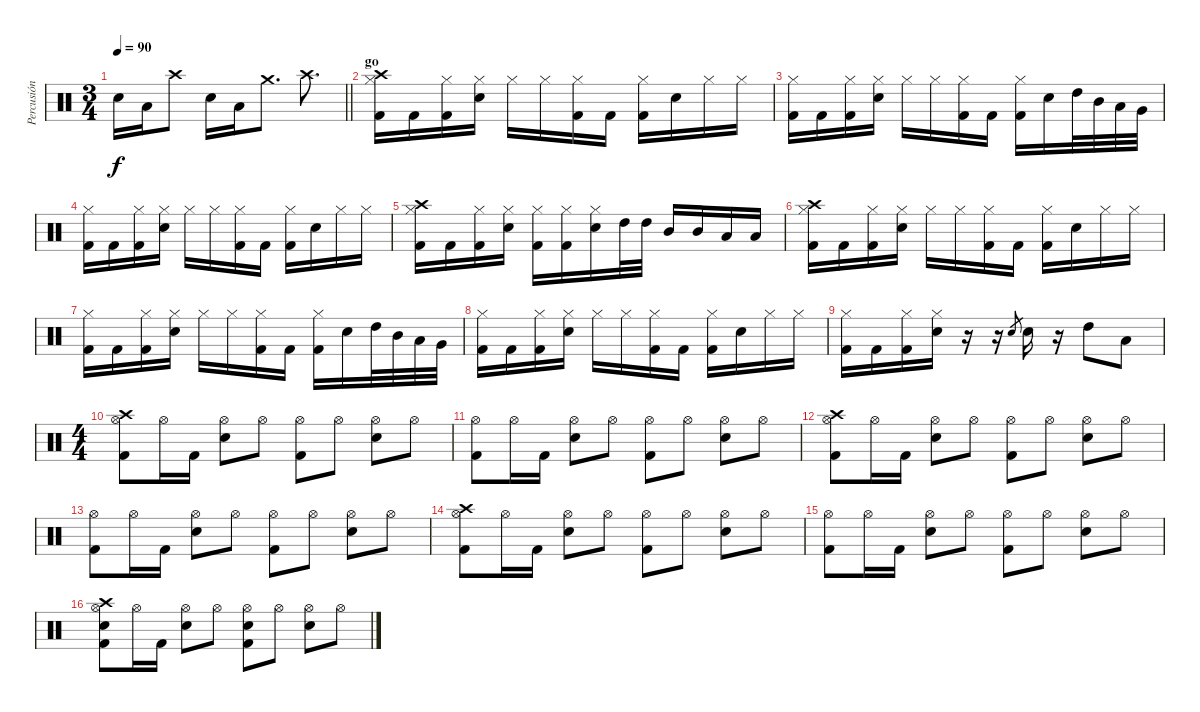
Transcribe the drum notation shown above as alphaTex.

\track ("Percusión" "Percusión") {instrument percussion}
\staff {score}
\articulation defaults
\ts (3 4)
\tempo 90
\clef neutral
\barLineRight lightlight
\ks c "Electric Snare (hit)".16{dy f} "Low Tom (hit)".16 "Crash high (hit)".8 "Electric Snare (hit)".16 "Low Tom (hit)".16 "Crash medium (hit)".8{d} "Crash high (hit)".8{d}
|
\section ("" "go")
("Crash high (hit)" "Hi-Hat (closed)" "Kick (hit) 2").16 "Kick (hit) 2".16 ("Hi-Hat (closed)" "Kick (hit) 2").16 ("Hi-Hat (closed)" "Electric Snare (hit)").16 "Hi-Hat (closed)".16 "Hi-Hat (closed)".16 ("Hi-Hat (closed)" "Kick (hit) 2").16 "Kick (hit) 2".16 ("Hi-Hat (closed)" "Kick (hit) 2").16 "Electric Snare (hit)".16 "Hi-Hat (closed)".16 "Hi-Hat (closed)".16 |
("Hi-Hat (closed)" "Kick (hit) 2").16 "Kick (hit) 2".16 ("Hi-Hat (closed)" "Kick (hit) 2").16 ("Hi-Hat (closed)" "Electric Snare (hit)").16 "Hi-Hat (closed)".16 "Hi-Hat (closed)".16 ("Hi-Hat (closed)" "Kick (hit) 2").16 "Kick (hit) 2".16 ("Hi-Hat (closed)" "Kick (hit) 2").16 "Electric Snare (hit)".16 "High Tom (hit)".32 "Mid Tom (hit)".32 "Low Tom (hit)".32 "Very Low Tom (hit)".32 |
("Hi-Hat (closed)" "Kick (hit) 2").16 "Kick (hit) 2".16 ("Hi-Hat (closed)" "Kick (hit) 2").16 ("Hi-Hat (closed)" "Electric Snare (hit)").16 "Hi-Hat (closed)".16 "Hi-Hat (closed)".16 ("Hi-Hat (closed)" "Kick (hit) 2").16 "Kick (hit) 2".16 ("Hi-Hat (closed)" "Kick (hit) 2").16 "Electric Snare (hit)".16 "Hi-Hat (closed)".16 "Hi-Hat (closed)".16 |
("Crash high (hit)" "Hi-Hat (closed)" "Kick (hit) 2").16 "Kick (hit) 2".16 ("Hi-Hat (closed)" "Kick (hit) 2").16 ("Hi-Hat (closed)" "Electric Snare (hit)").16 ("Hi-Hat (closed)" "Kick (hit) 2").16 ("Hi-Hat (closed)" "Kick (hit) 2").16 ("Hi-Hat (closed)" "Electric Snare (hit)").16 "High Tom (hit)".32 "High Tom (hit)".32 "Mid Tom (hit)".16 "Mid Tom (hit)".16 "Low Tom (hit)".16 "Low Tom (hit)".16 |
("Crash high (hit)" "Hi-Hat (closed)" "Kick (hit) 2").16 "Kick (hit) 2".16 ("Hi-Hat (closed)" "Kick (hit) 2").16 ("Hi-Hat (closed)" "Electric Snare (hit)").16 "Hi-Hat (closed)".16 "Hi-Hat (closed)".16 ("Hi-Hat (closed)" "Kick (hit) 2").16 "Kick (hit) 2".16 ("Hi-Hat (closed)" "Kick (hit) 2").16 "Electric Snare (hit)".16 "Hi-Hat (closed)".16 "Hi-Hat (closed)".16 |
("Hi-Hat (closed)" "Kick (hit) 2").16 "Kick (hit) 2".16 ("Hi-Hat (closed)" "Kick (hit) 2").16 ("Hi-Hat (closed)" "Electric Snare (hit)").16 "Hi-Hat (closed)".16 "Hi-Hat (closed)".16 ("Hi-Hat (closed)" "Kick (hit) 2").16 "Kick (hit) 2".16 ("Hi-Hat (closed)" "Kick (hit) 2").16 "Electric Snare (hit)".16 "High Tom (hit)".32 "Mid Tom (hit)".32 "Low Tom (hit)".32 "Very Low Tom (hit)".32 |
("Hi-Hat (closed)" "Kick (hit) 2").16 "Kick (hit) 2".16 ("Hi-Hat (closed)" "Kick (hit) 2").16 ("Hi-Hat (closed)" "Electric Snare (hit)").16 "Hi-Hat (closed)".16 "Hi-Hat (closed)".16 ("Hi-Hat (closed)" "Kick (hit) 2").16 "Kick (hit) 2".16 ("Hi-Hat (closed)" "Kick (hit) 2").16 "Electric Snare (hit)".16 "Hi-Hat (closed)".16 "Hi-Hat (closed)".16 |
("Hi-Hat (closed)" "Kick (hit) 2").16 "Kick (hit) 2".16 ("Hi-Hat (closed)" "Kick (hit) 2").16 ("Hi-Hat (closed)" "Electric Snare (hit)").16 r.16 r.16 "Electric Snare (hit)"{h}.8{gr} "Electric Snare (hit)".16 r.16 "High Tom (hit)".8 "Low Tom (hit)".8 |
\ts (4 4)
("Crash high (hit)" "Hi-Hat (open)" "Kick (hit) 2").8 "Hi-Hat (open)".16 "Kick (hit) 2".16 ("Hi-Hat (open)" "Electric Snare (hit)").8 "Hi-Hat (open)".8 ("Hi-Hat (open)" "Kick (hit) 2").8 "Hi-Hat (open)".8 ("Hi-Hat (open)" "Electric Snare (hit)").8 "Hi-Hat (open)".8 |
("Hi-Hat (open)" "Kick (hit) 2").8 "Hi-Hat (open)".16 "Kick (hit) 2".16 ("Hi-Hat (open)" "Electric Snare (hit)").8 "Hi-Hat (open)".8 ("Hi-Hat (open)" "Kick (hit) 2").8 "Hi-Hat (open)".8 ("Hi-Hat (open)" "Electric Snare (hit)").8 "Hi-Hat (open)".8 |
("Crash high (hit)" "Hi-Hat (open)" "Kick (hit) 2").8 "Hi-Hat (open)".16 "Kick (hit) 2".16 ("Hi-Hat (open)" "Electric Snare (hit)").8 "Hi-Hat (open)".8 ("Hi-Hat (open)" "Kick (hit) 2").8 "Hi-Hat (open)".8 ("Hi-Hat (open)" "Electric Snare (hit)").8 "Hi-Hat (open)".8 |
("Hi-Hat (open)" "Kick (hit) 2").8 "Hi-Hat (open)".16 "Kick (hit) 2".16 ("Hi-Hat (open)" "Electric Snare (hit)").8 "Hi-Hat (open)".8 ("Hi-Hat (open)" "Kick (hit) 2").8 "Hi-Hat (open)".8 ("Hi-Hat (open)" "Electric Snare (hit)").8 "Hi-Hat (open)".8 |
("Crash high (hit)" "Hi-Hat (open)" "Kick (hit) 2").8 "Hi-Hat (open)".16 "Kick (hit) 2".16 ("Hi-Hat (open)" "Electric Snare (hit)").8 "Hi-Hat (open)".8 ("Hi-Hat (open)" "Kick (hit) 2").8 "Hi-Hat (open)".8 ("Hi-Hat (open)" "Electric Snare (hit)").8 "Hi-Hat (open)".8 |
("Hi-Hat (open)" "Kick (hit) 2").8 "Hi-Hat (open)".16 "Kick (hit) 2".16 ("Hi-Hat (open)" "Electric Snare (hit)").8 "Hi-Hat (open)".8 ("Hi-Hat (open)" "Kick (hit) 2").8 "Hi-Hat (open)".8 ("Hi-Hat (open)" "Electric Snare (hit)").8 "Hi-Hat (open)".8 |
("Crash high (hit)" "Hi-Hat (open)" "Electric Snare (hit)" "Kick (hit) 2").8 "Hi-Hat (open)".16 "Kick (hit) 2".16 ("Hi-Hat (open)" "Electric Snare (hit)").8 "Hi-Hat (open)".8 ("Hi-Hat (open)" "Electric Snare (hit)" "Kick (hit) 2").8 "Hi-Hat (open)".8 ("Hi-Hat (open)" "Electric Snare (hit)").8 "Hi-Hat (open)".8
